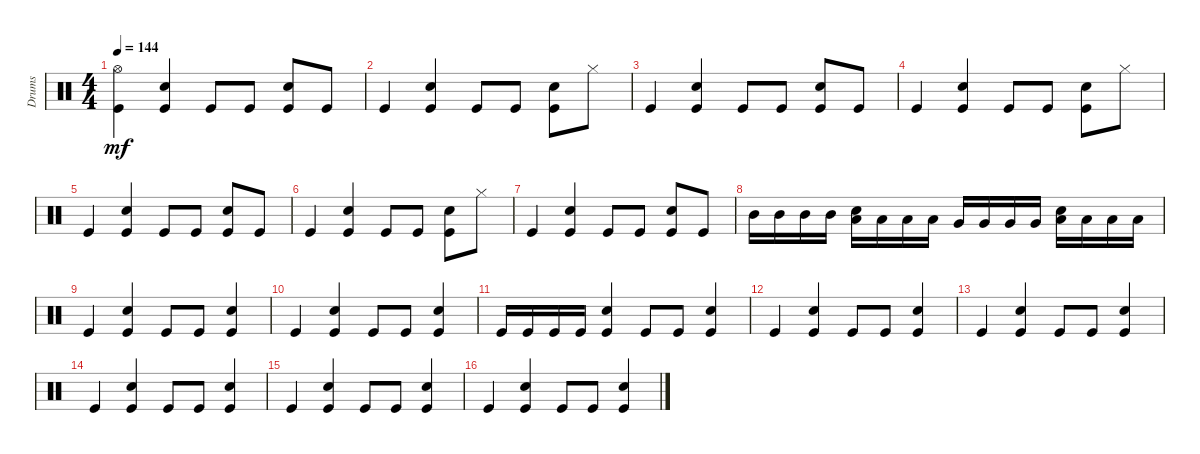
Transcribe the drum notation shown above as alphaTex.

\track ("Drums" "Drums") {instrument percussion}
\staff {score}
\articulation defaults
\ts (4 4)
\tempo 144
\clef neutral
\ks c
("Kick (hit)" "Hi-Hat (open)").4{dy mf} ("Kick (hit)" "Snare (hit) 2").4 "Kick (hit)".8 "Kick (hit)".8 ("Kick (hit)" "Snare (hit) 2").8 "Kick (hit)".8 |
"Kick (hit)".4 ("Kick (hit)" "Snare (hit) 2").4 "Kick (hit)".8 "Kick (hit)".8 ("Kick (hit)" "Snare (hit) 2").8 "Hi-Hat (closed)".8 |
"Kick (hit)".4 ("Kick (hit)" "Snare (hit) 2").4 "Kick (hit)".8 "Kick (hit)".8 ("Kick (hit)" "Snare (hit) 2").8 "Kick (hit)".8 |
"Kick (hit)".4 ("Kick (hit)" "Snare (hit) 2").4 "Kick (hit)".8 "Kick (hit)".8 ("Kick (hit)" "Snare (hit) 2").8 "Hi-Hat (closed)".8 |
"Kick (hit)".4 ("Kick (hit)" "Snare (hit) 2").4 "Kick (hit)".8 "Kick (hit)".8 ("Kick (hit)" "Snare (hit) 2").8 "Kick (hit)".8 |
"Kick (hit)".4 ("Kick (hit)" "Snare (hit) 2").4 "Kick (hit)".8 "Kick (hit)".8 ("Kick (hit)" "Snare (hit) 2").8 "Hi-Hat (closed)".8 |
"Kick (hit)".4 ("Kick (hit)" "Snare (hit) 2").4 "Kick (hit)".8 "Kick (hit)".8 ("Kick (hit)" "Snare (hit) 2").8 "Kick (hit)".8 |
"Mid Tom (hit)".16 "Mid Tom (hit)".16 "Mid Tom (hit)".16 "Mid Tom (hit)".16 ("Low Tom (hit)" "Snare (hit) 2").16 "Low Tom (hit)".16 "Low Tom (hit)".16 "Low Tom (hit)".16 "Very Low Tom (hit)".16 "Very Low Tom (hit)".16 "Very Low Tom (hit)".16 "Very Low Tom (hit)".16 ("Low Floor Tom (hit)" "Snare (hit) 2").16 "Low Floor Tom (hit)".16 "Low Floor Tom (hit)".16 "Low Floor Tom (hit)".16 |
"Kick (hit)".4 ("Kick (hit)" "Snare (hit) 2").4 "Kick (hit)".8 "Kick (hit)".8 ("Kick (hit)" "Snare (hit) 2").4 |
"Kick (hit)".4 ("Kick (hit)" "Snare (hit) 2").4 "Kick (hit)".8 "Kick (hit)".8 ("Kick (hit)" "Snare (hit) 2").4 |
"Kick (hit)".16 "Kick (hit)".16 "Kick (hit)".16 "Kick (hit)".16 ("Kick (hit)" "Snare (hit) 2").4 "Kick (hit)".8 "Kick (hit)".8 ("Kick (hit)" "Snare (hit) 2").4 |
"Kick (hit)".4 ("Kick (hit)" "Snare (hit) 2").4 "Kick (hit)".8 "Kick (hit)".8 ("Kick (hit)" "Snare (hit) 2").4 |
"Kick (hit)".4 ("Kick (hit)" "Snare (hit) 2").4 "Kick (hit)".8 "Kick (hit)".8 ("Kick (hit)" "Snare (hit) 2").4 |
"Kick (hit)".4 ("Kick (hit)" "Snare (hit) 2").4 "Kick (hit)".8 "Kick (hit)".8 ("Kick (hit)" "Snare (hit) 2").4 |
"Kick (hit)".4 ("Kick (hit)" "Snare (hit) 2").4 "Kick (hit)".8 "Kick (hit)".8 ("Kick (hit)" "Snare (hit) 2").4 |
"Kick (hit)".4 ("Kick (hit)" "Snare (hit) 2").4 "Kick (hit)".8 "Kick (hit)".8 ("Kick (hit)" "Snare (hit) 2").4
